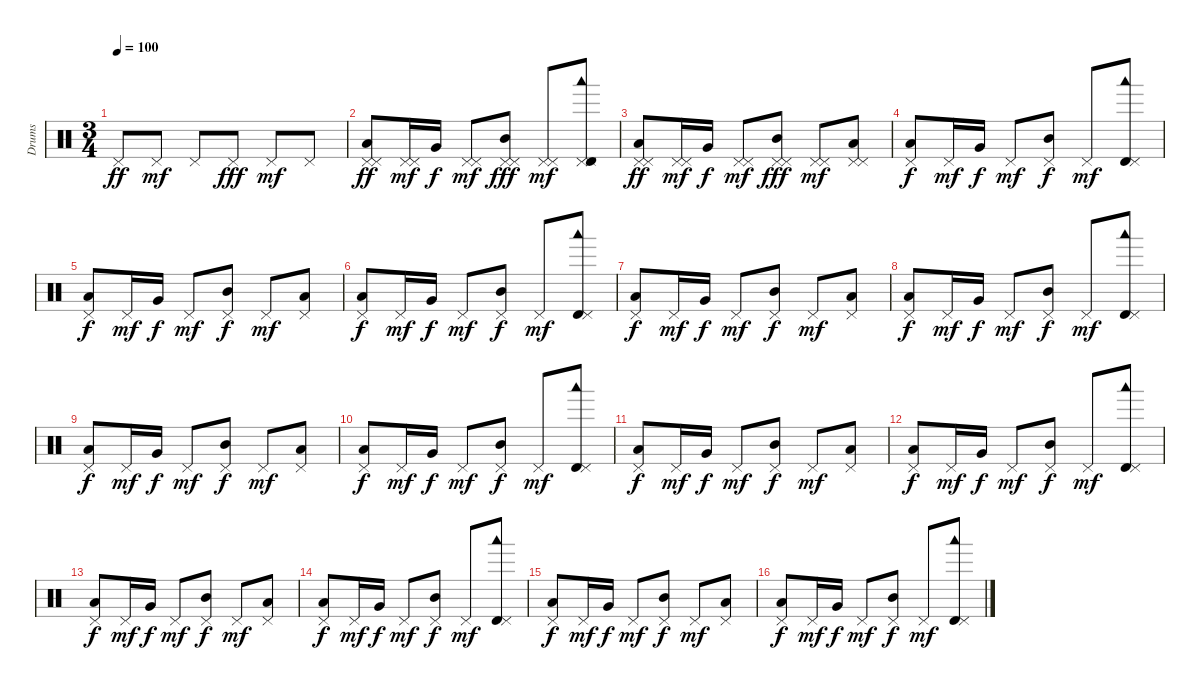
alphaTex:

\track ("Drums" "Drums") {instrument percussion}
\staff {score}
\articulation defaults
\ts (3 4)
\tempo 100
\clef neutral
\ks c "Pedal Hi-Hat (hit)".8{dy ff} "Pedal Hi-Hat (hit)".8{dy mf} "Pedal Hi-Hat (hit)".8 "Pedal Hi-Hat (hit)".8{dy fff} "Pedal Hi-Hat (hit)".8{dy mf} "Pedal Hi-Hat (hit)".8
|
("Low Floor Tom (hit)" "Pedal Hi-Hat (hit)" "Pedal Hi-Hat (hit)").8{dy ff} ("Pedal Hi-Hat (hit)" "Pedal Hi-Hat (hit)").16{dy mf} "Very Low Tom (hit)".16{dy f} ("Pedal Hi-Hat (hit)" "Pedal Hi-Hat (hit)").8{dy mf} ("Pedal Hi-Hat (hit)" "Mid Tom (hit)" "Pedal Hi-Hat (hit)").8{dy fff} ("Pedal Hi-Hat (hit)" "Pedal Hi-Hat (hit)").8{dy mf} ("Pedal Hi-Hat (hit)" "Woodblock low (hit)" "Timbale high (hit)" "Pedal Hi-Hat (hit)").8 |
("Pedal Hi-Hat (hit)" "Low Floor Tom (hit)" "Pedal Hi-Hat (hit)").8{dy ff} ("Pedal Hi-Hat (hit)" "Pedal Hi-Hat (hit)").16{dy mf} "Very Low Tom (hit)".16{dy f} ("Pedal Hi-Hat (hit)" "Pedal Hi-Hat (hit)").8{dy mf} ("Pedal Hi-Hat (hit)" "Mid Tom (hit)" "Pedal Hi-Hat (hit)").8{dy fff} ("Pedal Hi-Hat (hit)" "Pedal Hi-Hat (hit)").8{dy mf} ("Pedal Hi-Hat (hit)" "Low Floor Tom (hit)" "Pedal Hi-Hat (hit)").8 |
("Low Floor Tom (hit)" "Pedal Hi-Hat (hit)").8{dy f} "Pedal Hi-Hat (hit)".16{dy mf} "Very Low Tom (hit)".16{dy f} "Pedal Hi-Hat (hit)".8{dy mf} ("Mid Tom (hit)" "Pedal Hi-Hat (hit)").8{dy f} "Pedal Hi-Hat (hit)".8{dy mf} ("Woodblock low (hit)" "Timbale high (hit)" "Pedal Hi-Hat (hit)").8 |
("Low Floor Tom (hit)" "Pedal Hi-Hat (hit)").8{dy f} "Pedal Hi-Hat (hit)".16{dy mf} "Very Low Tom (hit)".16{dy f} "Pedal Hi-Hat (hit)".8{dy mf} ("Mid Tom (hit)" "Pedal Hi-Hat (hit)").8{dy f} "Pedal Hi-Hat (hit)".8{dy mf} ("Low Floor Tom (hit)" "Pedal Hi-Hat (hit)").8 |
("Low Floor Tom (hit)" "Pedal Hi-Hat (hit)").8{dy f} "Pedal Hi-Hat (hit)".16{dy mf} "Very Low Tom (hit)".16{dy f} "Pedal Hi-Hat (hit)".8{dy mf} ("Mid Tom (hit)" "Pedal Hi-Hat (hit)").8{dy f} "Pedal Hi-Hat (hit)".8{dy mf} ("Woodblock low (hit)" "Timbale high (hit)" "Pedal Hi-Hat (hit)").8 |
("Low Floor Tom (hit)" "Pedal Hi-Hat (hit)").8{dy f} "Pedal Hi-Hat (hit)".16{dy mf} "Very Low Tom (hit)".16{dy f} "Pedal Hi-Hat (hit)".8{dy mf} ("Mid Tom (hit)" "Pedal Hi-Hat (hit)").8{dy f} "Pedal Hi-Hat (hit)".8{dy mf} ("Low Floor Tom (hit)" "Pedal Hi-Hat (hit)").8 |
("Low Floor Tom (hit)" "Pedal Hi-Hat (hit)").8{dy f} "Pedal Hi-Hat (hit)".16{dy mf} "Very Low Tom (hit)".16{dy f} "Pedal Hi-Hat (hit)".8{dy mf} ("Mid Tom (hit)" "Pedal Hi-Hat (hit)").8{dy f} "Pedal Hi-Hat (hit)".8{dy mf} ("Woodblock low (hit)" "Timbale high (hit)" "Pedal Hi-Hat (hit)").8 |
("Low Floor Tom (hit)" "Pedal Hi-Hat (hit)").8{dy f} "Pedal Hi-Hat (hit)".16{dy mf} "Very Low Tom (hit)".16{dy f} "Pedal Hi-Hat (hit)".8{dy mf} ("Mid Tom (hit)" "Pedal Hi-Hat (hit)").8{dy f} "Pedal Hi-Hat (hit)".8{dy mf} ("Low Floor Tom (hit)" "Pedal Hi-Hat (hit)").8 |
("Low Floor Tom (hit)" "Pedal Hi-Hat (hit)").8{dy f} "Pedal Hi-Hat (hit)".16{dy mf} "Very Low Tom (hit)".16{dy f} "Pedal Hi-Hat (hit)".8{dy mf} ("Mid Tom (hit)" "Pedal Hi-Hat (hit)").8{dy f} "Pedal Hi-Hat (hit)".8{dy mf} ("Woodblock low (hit)" "Timbale high (hit)" "Pedal Hi-Hat (hit)").8 |
("Low Floor Tom (hit)" "Pedal Hi-Hat (hit)").8{dy f} "Pedal Hi-Hat (hit)".16{dy mf} "Very Low Tom (hit)".16{dy f} "Pedal Hi-Hat (hit)".8{dy mf} ("Mid Tom (hit)" "Pedal Hi-Hat (hit)").8{dy f} "Pedal Hi-Hat (hit)".8{dy mf} ("Low Floor Tom (hit)" "Pedal Hi-Hat (hit)").8 |
("Low Floor Tom (hit)" "Pedal Hi-Hat (hit)").8{dy f} "Pedal Hi-Hat (hit)".16{dy mf} "Very Low Tom (hit)".16{dy f} "Pedal Hi-Hat (hit)".8{dy mf} ("Mid Tom (hit)" "Pedal Hi-Hat (hit)").8{dy f} "Pedal Hi-Hat (hit)".8{dy mf} ("Woodblock low (hit)" "Timbale high (hit)" "Pedal Hi-Hat (hit)").8 |
("Low Floor Tom (hit)" "Pedal Hi-Hat (hit)").8{dy f} "Pedal Hi-Hat (hit)".16{dy mf} "Very Low Tom (hit)".16{dy f} "Pedal Hi-Hat (hit)".8{dy mf} ("Mid Tom (hit)" "Pedal Hi-Hat (hit)").8{dy f} "Pedal Hi-Hat (hit)".8{dy mf} ("Low Floor Tom (hit)" "Pedal Hi-Hat (hit)").8 |
("Low Floor Tom (hit)" "Pedal Hi-Hat (hit)").8{dy f} "Pedal Hi-Hat (hit)".16{dy mf} "Very Low Tom (hit)".16{dy f} "Pedal Hi-Hat (hit)".8{dy mf} ("Mid Tom (hit)" "Pedal Hi-Hat (hit)").8{dy f} "Pedal Hi-Hat (hit)".8{dy mf} ("Woodblock low (hit)" "Timbale high (hit)" "Pedal Hi-Hat (hit)").8 |
("Low Floor Tom (hit)" "Pedal Hi-Hat (hit)").8{dy f} "Pedal Hi-Hat (hit)".16{dy mf} "Very Low Tom (hit)".16{dy f} "Pedal Hi-Hat (hit)".8{dy mf} ("Mid Tom (hit)" "Pedal Hi-Hat (hit)").8{dy f} "Pedal Hi-Hat (hit)".8{dy mf} ("Low Floor Tom (hit)" "Pedal Hi-Hat (hit)").8 |
("Low Floor Tom (hit)" "Pedal Hi-Hat (hit)").8{dy f} "Pedal Hi-Hat (hit)".16{dy mf} "Very Low Tom (hit)".16{dy f} "Pedal Hi-Hat (hit)".8{dy mf} ("Mid Tom (hit)" "Pedal Hi-Hat (hit)").8{dy f} "Pedal Hi-Hat (hit)".8{dy mf} ("Woodblock low (hit)" "Timbale high (hit)" "Pedal Hi-Hat (hit)").8
